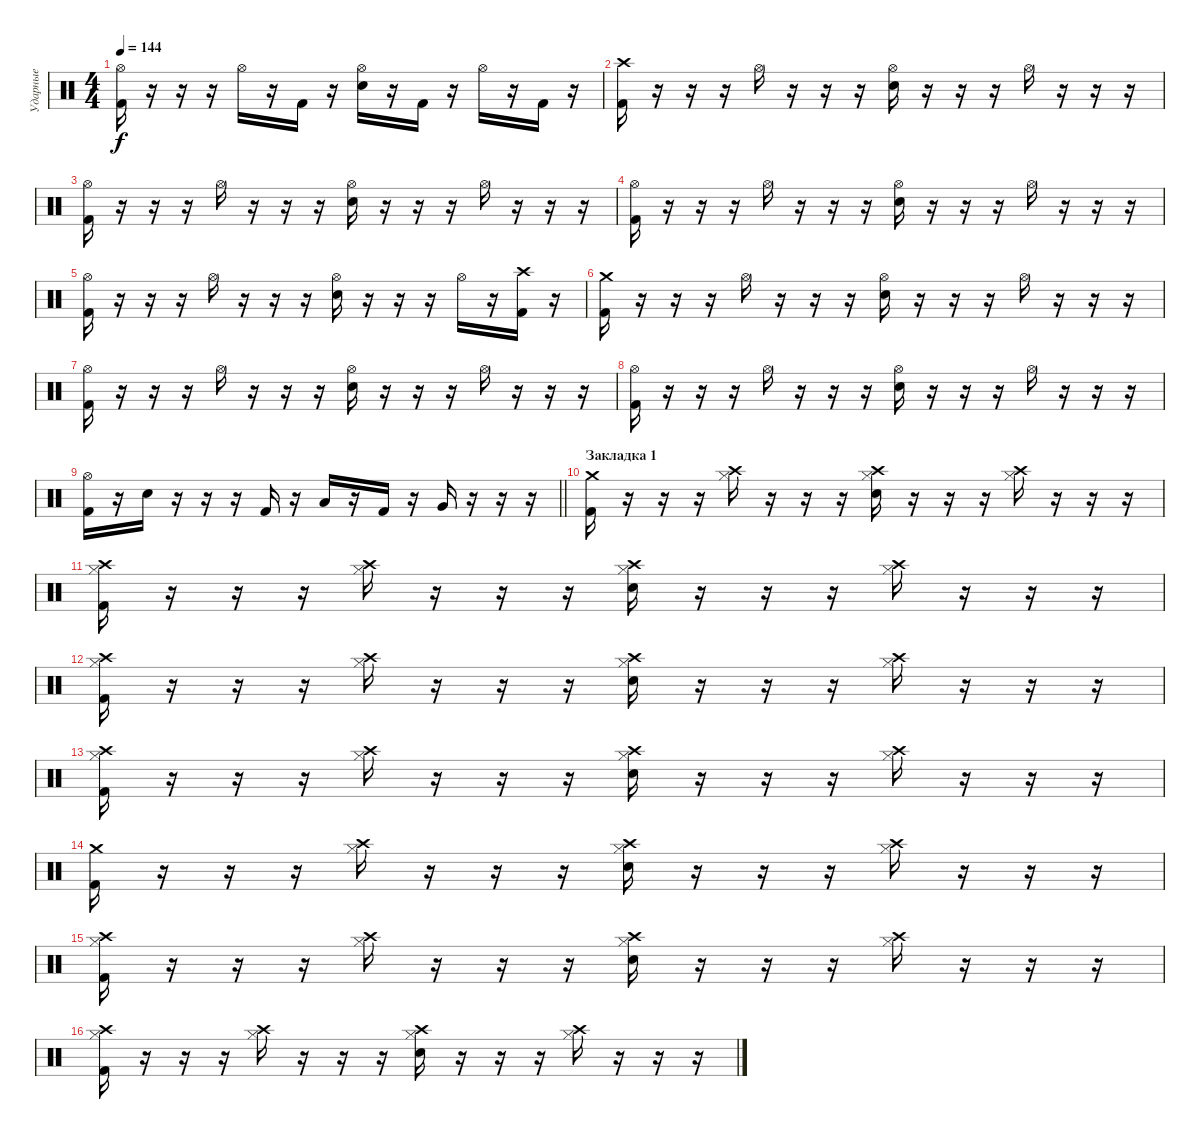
\track ("Ударные" "Ударные") {instrument percussion}
\staff {score}
\articulation defaults
\ts (4 4)
\tempo 144
\clef neutral
\ks c
("Hi-Hat (open)" "Kick (hit) 2").16{dy f} r.16 r.16 r.16 "Hi-Hat (open)".16 r.16 "Kick (hit) 2".16 r.16 ("Hi-Hat (open)" "Electric Snare (hit)").16 r.16 "Kick (hit) 2".16 r.16 "Hi-Hat (open)".16 r.16 "Kick (hit) 2".16 r.16 |
("Crash high (hit)" "Kick (hit) 2").16 r.16 r.16 r.16 "Hi-Hat (open)".16 r.16 r.16 r.16 ("Hi-Hat (open)" "Electric Snare (hit)").16 r.16 r.16 r.16 "Hi-Hat (open)".16 r.16 r.16 r.16 |
("Hi-Hat (open)" "Kick (hit) 2").16 r.16 r.16 r.16 "Hi-Hat (open)".16 r.16 r.16 r.16 ("Hi-Hat (open)" "Electric Snare (hit)").16 r.16 r.16 r.16 "Hi-Hat (open)".16 r.16 r.16 r.16 |
("Hi-Hat (open)" "Kick (hit) 2").16 r.16 r.16 r.16 "Hi-Hat (open)".16 r.16 r.16 r.16 ("Hi-Hat (open)" "Electric Snare (hit)").16 r.16 r.16 r.16 "Hi-Hat (open)".16 r.16 r.16 r.16 |
("Hi-Hat (open)" "Kick (hit) 2").16 r.16 r.16 r.16 "Hi-Hat (open)".16 r.16 r.16 r.16 ("Hi-Hat (open)" "Electric Snare (hit)").16 r.16 r.16 r.16 "Hi-Hat (open)".16 r.16 ("Crash high (hit)" "Kick (hit) 2").16 r.16 |
("Crash medium (hit)" "Kick (hit) 2").16 r.16 r.16 r.16 "Hi-Hat (open)".16 r.16 r.16 r.16 ("Hi-Hat (open)" "Electric Snare (hit)").16 r.16 r.16 r.16 "Hi-Hat (open)".16 r.16 r.16 r.16 |
("Hi-Hat (open)" "Kick (hit) 2").16 r.16 r.16 r.16 "Hi-Hat (open)".16 r.16 r.16 r.16 ("Hi-Hat (open)" "Electric Snare (hit)").16 r.16 r.16 r.16 "Hi-Hat (open)".16 r.16 r.16 r.16 |
("Hi-Hat (open)" "Kick (hit) 2").16 r.16 r.16 r.16 "Hi-Hat (open)".16 r.16 r.16 r.16 ("Hi-Hat (open)" "Electric Snare (hit)").16 r.16 r.16 r.16 "Hi-Hat (open)".16 r.16 r.16 r.16 |
\barLineRight lightlight
("Hi-Hat (open)" "Kick (hit) 2").16 r.16 "Electric Snare (hit)".16 r.16 r.16 r.16 "Kick (hit) 2".16 r.16 "Low Tom (hit)".16 r.16 "Kick (hit) 2".16 r.16 "Very Low Tom (hit)".16 r.16 r.16 r.16 |
\section ("" "Закладка 1")
("Crash medium (hit)" "Kick (hit) 2").16 r.16 r.16 r.16 ("Crash high (hit)" "Hi-Hat (closed)").16 r.16 r.16 r.16 ("Crash high (hit)" "Hi-Hat (closed)" "Electric Snare (hit)").16 r.16 r.16 r.16 ("Crash high (hit)" "Hi-Hat (closed)").16 r.16 r.16 r.16 |
("Crash high (hit)" "Hi-Hat (closed)" "Kick (hit) 2").16 r.16 r.16 r.16 ("Crash high (hit)" "Hi-Hat (closed)").16 r.16 r.16 r.16 ("Crash high (hit)" "Hi-Hat (closed)" "Electric Snare (hit)").16 r.16 r.16 r.16 ("Crash high (hit)" "Hi-Hat (closed)").16 r.16 r.16 r.16 |
("Crash high (hit)" "Hi-Hat (closed)" "Kick (hit) 2").16 r.16 r.16 r.16 ("Crash high (hit)" "Hi-Hat (closed)").16 r.16 r.16 r.16 ("Crash high (hit)" "Hi-Hat (closed)" "Electric Snare (hit)").16 r.16 r.16 r.16 ("Crash high (hit)" "Hi-Hat (closed)").16 r.16 r.16 r.16 |
("Crash high (hit)" "Hi-Hat (closed)" "Kick (hit) 2").16 r.16 r.16 r.16 ("Crash high (hit)" "Hi-Hat (closed)").16 r.16 r.16 r.16 ("Crash high (hit)" "Hi-Hat (closed)" "Electric Snare (hit)").16 r.16 r.16 r.16 ("Crash high (hit)" "Hi-Hat (closed)").16 r.16 r.16 r.16 |
("Crash medium (hit)" "Kick (hit) 2").16 r.16 r.16 r.16 ("Crash high (hit)" "Hi-Hat (closed)").16 r.16 r.16 r.16 ("Crash high (hit)" "Hi-Hat (closed)" "Electric Snare (hit)").16 r.16 r.16 r.16 ("Crash high (hit)" "Hi-Hat (closed)").16 r.16 r.16 r.16 |
("Crash high (hit)" "Hi-Hat (closed)" "Kick (hit) 2").16 r.16 r.16 r.16 ("Crash high (hit)" "Hi-Hat (closed)").16 r.16 r.16 r.16 ("Crash high (hit)" "Hi-Hat (closed)" "Electric Snare (hit)").16 r.16 r.16 r.16 ("Crash high (hit)" "Hi-Hat (closed)").16 r.16 r.16 r.16 |
("Crash high (hit)" "Hi-Hat (closed)" "Kick (hit) 2").16 r.16 r.16 r.16 ("Crash high (hit)" "Hi-Hat (closed)").16 r.16 r.16 r.16 ("Crash high (hit)" "Hi-Hat (closed)" "Electric Snare (hit)").16 r.16 r.16 r.16 ("Crash high (hit)" "Hi-Hat (closed)").16 r.16 r.16 r.16
